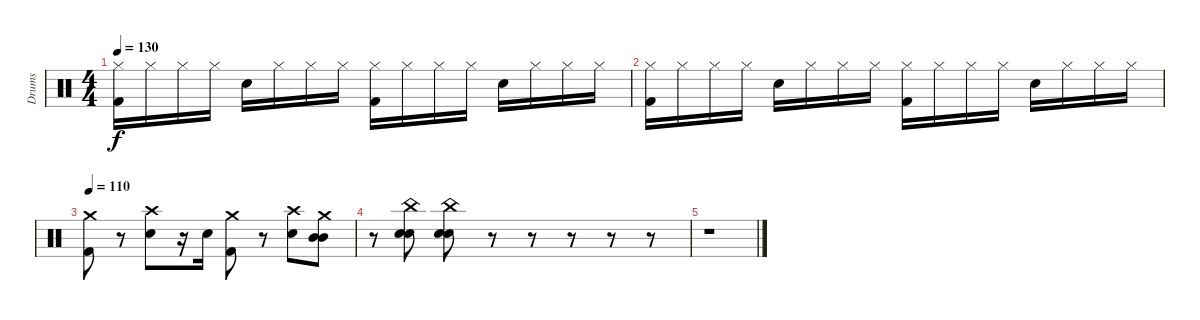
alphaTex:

\track ("Drums" "Drums") {instrument percussion}
\staff {score}
\articulation defaults
\ts (4 4)
\tempo 130
\clef neutral
\ks c
("Hi-Hat (closed)" "Kick (hit) 2").16{dy f} "Hi-Hat (closed)".16 "Hi-Hat (closed)".16 "Hi-Hat (closed)".16 "Electric Snare (hit)".16 "Hi-Hat (closed)".16 "Hi-Hat (closed)".16 "Hi-Hat (closed)".16 ("Hi-Hat (closed)" "Kick (hit) 2").16 "Hi-Hat (closed)".16 "Hi-Hat (closed)".16 "Hi-Hat (closed)".16 "Electric Snare (hit)".16 "Hi-Hat (closed)".16 "Hi-Hat (closed)".16 "Hi-Hat (closed)".16 |
("Hi-Hat (closed)" "Kick (hit) 2").16 "Hi-Hat (closed)".16 "Hi-Hat (closed)".16 "Hi-Hat (closed)".16 "Electric Snare (hit)".16 "Hi-Hat (closed)".16 "Hi-Hat (closed)".16 "Hi-Hat (closed)".16 ("Hi-Hat (closed)" "Kick (hit) 2").16 "Hi-Hat (closed)".16 "Hi-Hat (closed)".16 "Hi-Hat (closed)".16 "Electric Snare (hit)".16 "Hi-Hat (closed)".16 "Hi-Hat (closed)".16 "Hi-Hat (closed)".16 |
\tempo 110
("Crash medium (hit)" "Kick (hit) 2").8 r.8 ("Crash high (hit)" "Electric Snare (hit)").8 r.16 "Electric Snare (hit)".16 ("Crash medium (hit)" "Kick (hit) 2").8 r.8 ("Crash high (hit)" "Electric Snare (hit)").8 ("Crash medium (hit)" "Mid Tom (hit)" "Mid Tom (hit)").8 |
r.8 ("China (hit)" "Electric Snare (hit)" "Electric Snare (hit)").8 ("China (hit)" "Electric Snare (hit)" "Electric Snare (hit)").8 r.8 r.8 r.8 r.8 r.8 |
r.1
